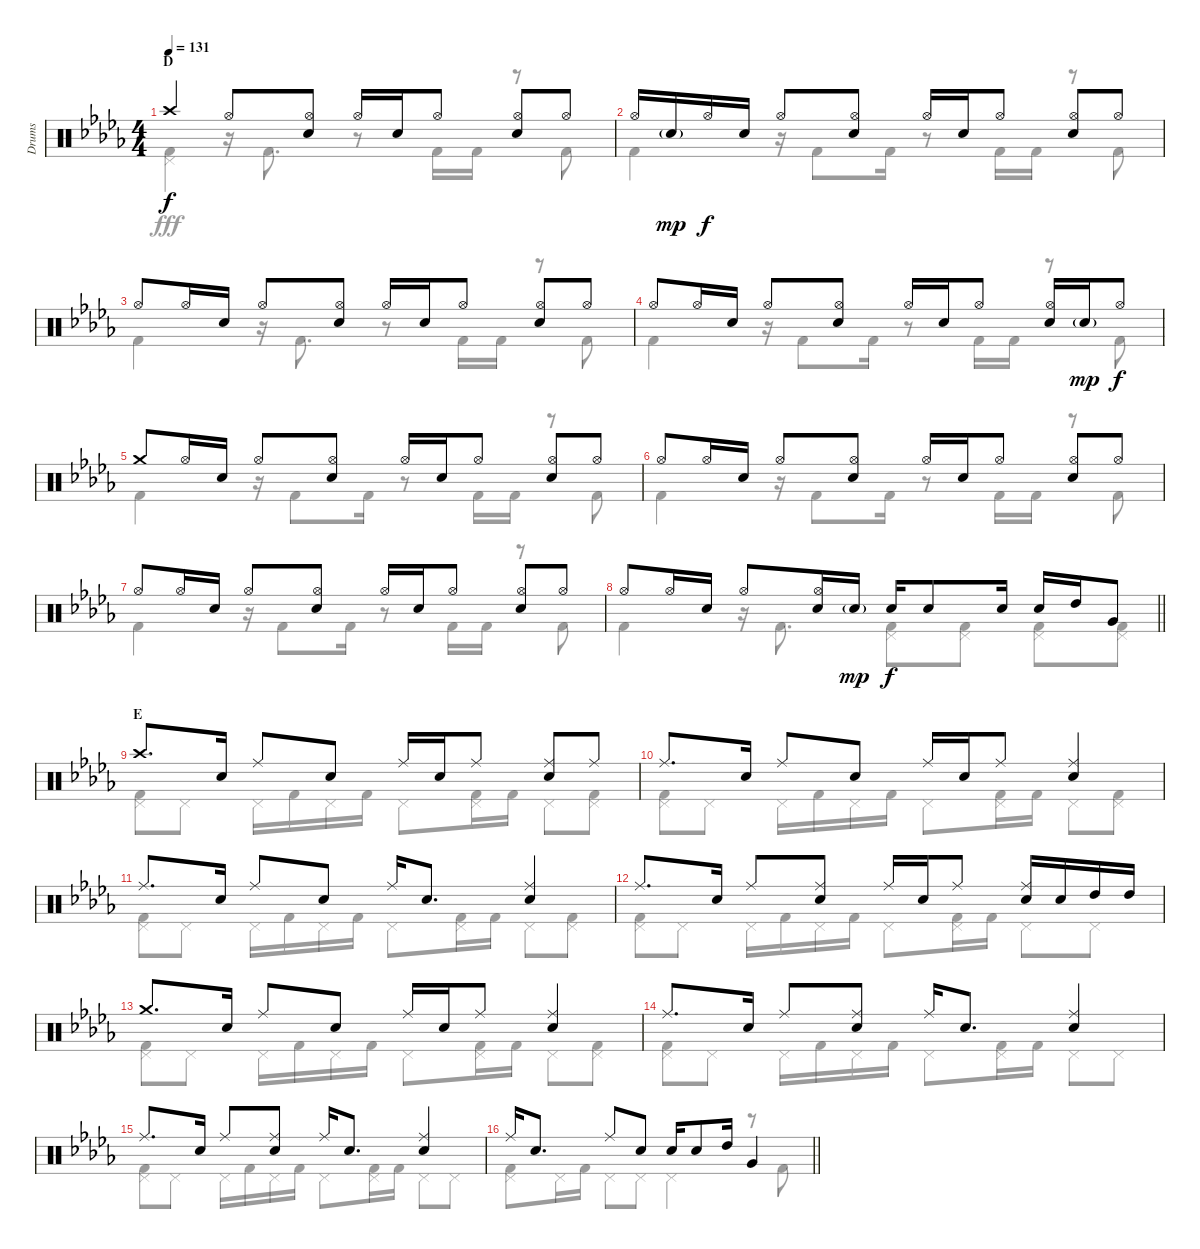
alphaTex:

\track ("Drums" "Drums") {instrument percussion}
\staff {score}
\articulation defaults
\voice
\ts (4 4)
\section ("" "D")
\tempo 131
\clef neutral
\ks db "Crash high (hit)".4{dy f} "Hi-Hat (open)".8
("Hi-Hat (open)" "Snare (hit) 2").8 "Hi-Hat (open)".16 "Snare (hit) 2".16 "Hi-Hat (open)".8 ("Hi-Hat (open)" "Snare (hit) 2").8 "Hi-Hat (open)".8 |
"Hi-Hat (open)".16 "Snare (hit) 2"{g}.16{dy mp} "Hi-Hat (open)".16{dy f} "Snare (hit) 2".16 "Hi-Hat (open)".8 ("Hi-Hat (open)" "Snare (hit) 2").8 "Hi-Hat (open)".16 "Snare (hit) 2".16 "Hi-Hat (open)".8 ("Hi-Hat (open)" "Snare (hit) 2").8 "Hi-Hat (open)".8 |
"Hi-Hat (open)".8 "Hi-Hat (open)".16 "Snare (hit) 2".16 "Hi-Hat (open)".8 ("Hi-Hat (open)" "Snare (hit) 2").8 "Hi-Hat (open)".16 "Snare (hit) 2".16 "Hi-Hat (open)".8 ("Hi-Hat (open)" "Snare (hit) 2").8 "Hi-Hat (open)".8 |
"Hi-Hat (open)".8 "Hi-Hat (open)".16 "Snare (hit) 2".16 "Hi-Hat (open)".8 ("Hi-Hat (open)" "Snare (hit) 2").8 "Hi-Hat (open)".16 "Snare (hit) 2".16 "Hi-Hat (open)".8 ("Hi-Hat (open)" "Snare (hit) 2").16 "Snare (hit) 2"{g}.16{dy mp} "Hi-Hat (open)".8{dy f} |
"Crash medium (hit)".8 "Hi-Hat (open)".16 "Snare (hit) 2".16 "Hi-Hat (open)".8 ("Hi-Hat (open)" "Snare (hit) 2").8 "Hi-Hat (open)".16 "Snare (hit) 2".16 "Hi-Hat (open)".8 ("Hi-Hat (open)" "Snare (hit) 2").8 "Hi-Hat (open)".8 |
"Hi-Hat (open)".8 "Hi-Hat (open)".16 "Snare (hit) 2".16 "Hi-Hat (open)".8 ("Hi-Hat (open)" "Snare (hit) 2").8 "Hi-Hat (open)".16 "Snare (hit) 2".16 "Hi-Hat (open)".8 ("Hi-Hat (open)" "Snare (hit) 2").8 "Hi-Hat (open)".8 |
"Hi-Hat (open)".8 "Hi-Hat (open)".16 "Snare (hit) 2".16 "Hi-Hat (open)".8 ("Hi-Hat (open)" "Snare (hit) 2").8 "Hi-Hat (open)".16 "Snare (hit) 2".16 "Hi-Hat (open)".8 ("Hi-Hat (open)" "Snare (hit) 2").8 "Hi-Hat (open)".8 |
\barLineRight lightlight "Hi-Hat (open)".8 "Hi-Hat (open)".16 "Snare (hit) 2".16 "Hi-Hat (open)".8
("Hi-Hat (open)" "Snare (hit) 2").16 "Snare (hit) 2"{g}.16{dy mp} "Snare (hit) 2".16{dy f} "Snare (hit) 2".8 "Snare (hit) 2".16 "Snare (hit) 2".16 "High Tom (hit)".16 "Very Low Tom (hit)".8 |
\section ("" "E")
"Crash high (hit)".8{d} "Snare (hit) 2".16 "Ride (middle)".8 "Snare (hit) 2".8 "Ride (middle)".16 "Snare (hit) 2".16 "Ride (middle)".8 ("Ride (middle)" "Snare (hit) 2").8 "Ride (middle)".8 |
"Ride (middle)".8{d} "Snare (hit) 2".16 "Ride (middle)".8 "Snare (hit) 2".8 "Ride (middle)".16 "Snare (hit) 2".16 "Ride (middle)".8 ("Ride (middle)" "Snare (hit) 2").4 |
"Ride (middle)".8{d} "Snare (hit) 2".16 "Ride (middle)".8 "Snare (hit) 2".8 "Ride (middle)".16 "Snare (hit) 2".8{d} ("Ride (middle)" "Snare (hit) 2").4 |
"Ride (middle)".8{d} "Snare (hit) 2".16 "Ride (middle)".8 ("Ride (middle)" "Snare (hit) 2").8 "Ride (middle)".16 "Snare (hit) 2".16 "Ride (middle)".8 ("Ride (middle)" "Snare (hit) 2").16 "Snare (hit) 2".16 "High Tom (hit)".16 "High Tom (hit)".16 |
"Crash medium (hit)".8{d} "Snare (hit) 2".16 "Ride (middle)".8 "Snare (hit) 2".8 "Ride (middle)".16 "Snare (hit) 2".16 "Ride (middle)".8 ("Ride (middle)" "Snare (hit) 2").4 |
"Ride (middle)".8{d} "Snare (hit) 2".16 "Ride (middle)".8 ("Ride (middle)" "Snare (hit) 2").8 "Ride (middle)".16 "Snare (hit) 2".8{d} ("Ride (middle)" "Snare (hit) 2").4 |
"Ride (middle)".8{d} "Snare (hit) 2".16 "Ride (middle)".8 ("Ride (middle)" "Snare (hit) 2").8 "Ride (middle)".16 "Snare (hit) 2".8{d} ("Ride (middle)" "Snare (hit) 2").4 |
\barLineRight lightlight "Ride (middle)".16 "Snare (hit) 2".8{d} "Ride (middle)".8 "Snare (hit) 2".8 "Snare (hit) 2".16 "Snare (hit) 2".8 "High Tom (hit)".16 "Very Low Tom (hit)".4
\voice
\clef neutral
\ottava regular
\simile none
\ks db
("Pedal Hi-Hat (hit)" "Kick (hit) 2").4{dy fff} r.16 "Kick (hit) 2".8{d} r.8 "Kick (hit) 2".16 "Kick (hit) 2".16 r.8 "Kick (hit) 2".8 |
"Kick (hit) 2".4 r.16 "Kick (hit) 2".8 "Kick (hit) 2".16 r.8 "Kick (hit) 2".16 "Kick (hit) 2".16 r.8 "Kick (hit) 2".8 |
"Kick (hit) 2".4 r.16 "Kick (hit) 2".8{d} r.8 "Kick (hit) 2".16 "Kick (hit) 2".16 r.8 "Kick (hit) 2".8 |
"Kick (hit) 2".4 r.16 "Kick (hit) 2".8 "Kick (hit) 2".16 r.8 "Kick (hit) 2".16 "Kick (hit) 2".16 r.8 "Kick (hit) 2".8 |
"Kick (hit) 2".4 r.16 "Kick (hit) 2".8 "Kick (hit) 2".16 r.8 "Kick (hit) 2".16 "Kick (hit) 2".16 r.8 "Kick (hit) 2".8 |
"Kick (hit) 2".4 r.16 "Kick (hit) 2".8 "Kick (hit) 2".16 r.8 "Kick (hit) 2".16 "Kick (hit) 2".16 r.8 "Kick (hit) 2".8 |
"Kick (hit) 2".4 r.16 "Kick (hit) 2".8 "Kick (hit) 2".16 r.8 "Kick (hit) 2".16 "Kick (hit) 2".16 r.8 "Kick (hit) 2".8 |
\barLineRight lightlight "Kick (hit) 2".4
r.16 "Kick (hit) 2".8{d} ("Pedal Hi-Hat (hit)" "Kick (hit) 2").8 ("Pedal Hi-Hat (hit)" "Kick (hit) 2").8 ("Pedal Hi-Hat (hit)" "Kick (hit) 2").8 ("Pedal Hi-Hat (hit)" "Kick (hit) 2").8 |
("Pedal Hi-Hat (hit)" "Kick (hit) 2").8 "Pedal Hi-Hat (hit)".8 "Pedal Hi-Hat (hit)".16 "Kick (hit) 2".16 "Pedal Hi-Hat (hit)".16 "Kick (hit) 2".16 "Pedal Hi-Hat (hit)".8 ("Pedal Hi-Hat (hit)" "Kick (hit) 2").16 "Kick (hit) 2".16 "Pedal Hi-Hat (hit)".8 ("Pedal Hi-Hat (hit)" "Kick (hit) 2").8 |
("Pedal Hi-Hat (hit)" "Kick (hit) 2").8 "Pedal Hi-Hat (hit)".8 "Pedal Hi-Hat (hit)".16 "Kick (hit) 2".16 "Pedal Hi-Hat (hit)".16 "Kick (hit) 2".16 "Pedal Hi-Hat (hit)".8 ("Pedal Hi-Hat (hit)" "Kick (hit) 2").16 "Kick (hit) 2".16 "Pedal Hi-Hat (hit)".8 ("Pedal Hi-Hat (hit)" "Kick (hit) 2").8 |
("Pedal Hi-Hat (hit)" "Kick (hit) 2").8 "Pedal Hi-Hat (hit)".8 "Pedal Hi-Hat (hit)".16 "Kick (hit) 2".16 "Pedal Hi-Hat (hit)".16 "Kick (hit) 2".16 "Pedal Hi-Hat (hit)".8 ("Pedal Hi-Hat (hit)" "Kick (hit) 2").16 "Kick (hit) 2".16 "Pedal Hi-Hat (hit)".8 ("Pedal Hi-Hat (hit)" "Kick (hit) 2").8 |
("Pedal Hi-Hat (hit)" "Kick (hit) 2").8 "Pedal Hi-Hat (hit)".8 "Pedal Hi-Hat (hit)".16 "Kick (hit) 2".16 "Pedal Hi-Hat (hit)".16 "Kick (hit) 2".16 "Pedal Hi-Hat (hit)".8 ("Pedal Hi-Hat (hit)" "Kick (hit) 2").16 "Kick (hit) 2".16 "Pedal Hi-Hat (hit)".8 "Pedal Hi-Hat (hit)".8 |
("Pedal Hi-Hat (hit)" "Kick (hit) 2").8 "Pedal Hi-Hat (hit)".8 "Pedal Hi-Hat (hit)".16 "Kick (hit) 2".16 "Pedal Hi-Hat (hit)".16 "Kick (hit) 2".16 "Pedal Hi-Hat (hit)".8 ("Pedal Hi-Hat (hit)" "Kick (hit) 2").16 "Kick (hit) 2".16 "Pedal Hi-Hat (hit)".8 ("Pedal Hi-Hat (hit)" "Kick (hit) 2").8 |
("Pedal Hi-Hat (hit)" "Kick (hit) 2").8 "Pedal Hi-Hat (hit)".8 "Pedal Hi-Hat (hit)".16 "Kick (hit) 2".16 "Pedal Hi-Hat (hit)".16 "Kick (hit) 2".16 "Pedal Hi-Hat (hit)".8 ("Pedal Hi-Hat (hit)" "Kick (hit) 2").16 "Kick (hit) 2".16 "Pedal Hi-Hat (hit)".8 "Pedal Hi-Hat (hit)".8 |
("Pedal Hi-Hat (hit)" "Kick (hit) 2").8 "Pedal Hi-Hat (hit)".8 "Pedal Hi-Hat (hit)".16 "Kick (hit) 2".16 "Pedal Hi-Hat (hit)".16 "Kick (hit) 2".16 "Pedal Hi-Hat (hit)".8 ("Pedal Hi-Hat (hit)" "Kick (hit) 2").16 "Kick (hit) 2".16 "Pedal Hi-Hat (hit)".8 "Pedal Hi-Hat (hit)".8 |
\barLineRight lightlight
("Pedal Hi-Hat (hit)" "Kick (hit) 2").8 "Pedal Hi-Hat (hit)".16 "Kick (hit) 2".16 "Pedal Hi-Hat (hit)".8 "Pedal Hi-Hat (hit)".8 "Pedal Hi-Hat (hit)".4 r.8 "Kick (hit) 2".8
